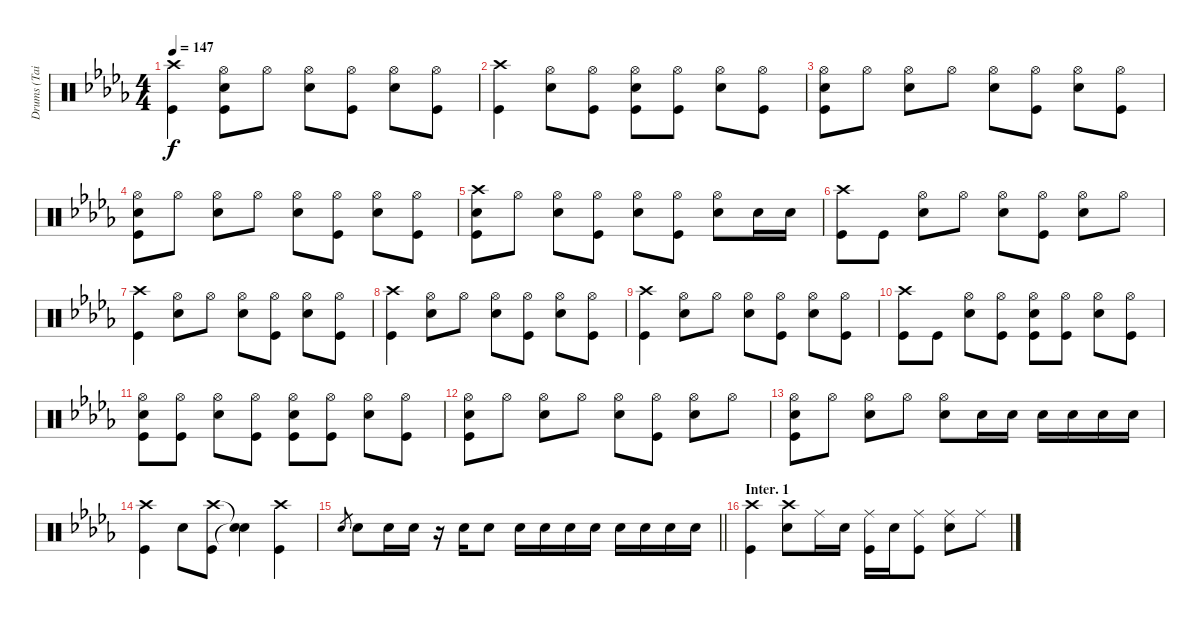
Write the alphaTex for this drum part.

\track ("Drums (Tainaka Ritsu)" "Drums (Tai") {instrument percussion}
\staff {score}
\articulation defaults
\ts (4 4)
\tempo 147
\clef neutral
\ks db
("Crash high (hit)" "Kick (hit)").4{dy f} ("Hi-Hat (open)" "Snare (hit) 2" "Kick (hit)").8 "Hi-Hat (open)".8 ("Hi-Hat (open)" "Snare (hit) 2").8 ("Hi-Hat (open)" "Kick (hit)").8 ("Hi-Hat (open)" "Snare (hit) 2").8 ("Hi-Hat (open)" "Kick (hit)").8 |
("Crash high (hit)" "Kick (hit)").4 ("Hi-Hat (open)" "Snare (hit) 2").8 ("Hi-Hat (open)" "Kick (hit)").8 ("Hi-Hat (open)" "Snare (hit) 2" "Kick (hit)").8 ("Hi-Hat (open)" "Kick (hit)").8 ("Hi-Hat (open)" "Snare (hit) 2").8 ("Hi-Hat (open)" "Kick (hit)").8 |
("Hi-Hat (open)" "Snare (hit) 2" "Kick (hit)").8 "Hi-Hat (open)".8 ("Hi-Hat (open)" "Snare (hit) 2").8 "Hi-Hat (open)".8 ("Hi-Hat (open)" "Snare (hit) 2").8 ("Hi-Hat (open)" "Kick (hit)").8 ("Hi-Hat (open)" "Snare (hit) 2").8 ("Hi-Hat (open)" "Kick (hit)").8 |
("Hi-Hat (open)" "Snare (hit) 2" "Kick (hit)").8 "Hi-Hat (open)".8 ("Hi-Hat (open)" "Snare (hit) 2").8 "Hi-Hat (open)".8 ("Hi-Hat (open)" "Snare (hit) 2").8 ("Hi-Hat (open)" "Kick (hit)").8 ("Hi-Hat (open)" "Snare (hit) 2").8 ("Hi-Hat (open)" "Kick (hit)").8 |
("Crash high (hit)" "Snare (hit) 2" "Kick (hit)").8 "Hi-Hat (open)".8 ("Hi-Hat (open)" "Snare (hit) 2").8 ("Hi-Hat (open)" "Kick (hit)").8 ("Hi-Hat (open)" "Snare (hit) 2").8 ("Hi-Hat (open)" "Kick (hit)").8 ("Hi-Hat (open)" "Snare (hit) 2").8 "Snare (hit) 2".16 "Snare (hit) 2".16 |
("Crash high (hit)" "Kick (hit)").8 "Kick (hit)".8 ("Hi-Hat (open)" "Snare (hit) 2").8 "Hi-Hat (open)".8 ("Hi-Hat (open)" "Snare (hit) 2").8 ("Hi-Hat (open)" "Kick (hit)").8 ("Hi-Hat (open)" "Snare (hit) 2").8 "Hi-Hat (open)".8 |
("Crash high (hit)" "Kick (hit)").4 ("Hi-Hat (open)" "Snare (hit) 2").8 "Hi-Hat (open)".8 ("Hi-Hat (open)" "Snare (hit) 2").8 ("Hi-Hat (open)" "Kick (hit)").8 ("Hi-Hat (open)" "Snare (hit) 2").8 ("Hi-Hat (open)" "Kick (hit)").8 |
("Crash high (hit)" "Kick (hit)").4 ("Hi-Hat (open)" "Snare (hit) 2").8 "Hi-Hat (open)".8 ("Hi-Hat (open)" "Snare (hit) 2").8 ("Hi-Hat (open)" "Kick (hit)").8 ("Hi-Hat (open)" "Snare (hit) 2").8 ("Hi-Hat (open)" "Kick (hit)").8 |
("Crash high (hit)" "Kick (hit)").4 ("Hi-Hat (open)" "Snare (hit) 2").8 "Hi-Hat (open)".8 ("Hi-Hat (open)" "Snare (hit) 2").8 ("Hi-Hat (open)" "Kick (hit)").8 ("Hi-Hat (open)" "Snare (hit) 2").8 ("Hi-Hat (open)" "Kick (hit)").8 |
("Crash high (hit)" "Kick (hit)").8 "Kick (hit)".8 ("Hi-Hat (open)" "Snare (hit) 2").8 ("Hi-Hat (open)" "Kick (hit)").8 ("Hi-Hat (open)" "Snare (hit) 2" "Kick (hit)").8 ("Hi-Hat (open)" "Kick (hit)").8 ("Hi-Hat (open)" "Snare (hit) 2").8 ("Hi-Hat (open)" "Kick (hit)").8 |
("Hi-Hat (open)" "Snare (hit) 2" "Kick (hit)").8 ("Hi-Hat (open)" "Kick (hit)").8 ("Hi-Hat (open)" "Snare (hit) 2").8 ("Hi-Hat (open)" "Kick (hit)").8 ("Hi-Hat (open)" "Snare (hit) 2" "Kick (hit)").8 ("Hi-Hat (open)" "Kick (hit)").8 ("Hi-Hat (open)" "Snare (hit) 2").8 ("Hi-Hat (open)" "Kick (hit)").8 |
("Hi-Hat (open)" "Snare (hit) 2" "Kick (hit)").8 "Hi-Hat (open)".8 ("Hi-Hat (open)" "Snare (hit) 2").8 "Hi-Hat (open)".8 ("Hi-Hat (open)" "Snare (hit) 2").8 ("Hi-Hat (open)" "Kick (hit)").8 ("Hi-Hat (open)" "Snare (hit) 2").8 "Hi-Hat (open)".8 |
("Hi-Hat (open)" "Snare (hit) 2" "Kick (hit)").8 "Hi-Hat (open)".8 ("Hi-Hat (open)" "Snare (hit) 2").8 "Hi-Hat (open)".8 ("Hi-Hat (open)" "Snare (hit) 2").8 "Snare (hit) 2".16 "Snare (hit) 2".16 "Snare (hit) 2".16 "Snare (hit) 2".16 "Snare (hit) 2".16 "Snare (hit) 2".16 |
("Crash high (hit)" "Kick (hit)").4 "Snare (hit) 2".8 ("Crash high (hit)" "Kick (hit)").8 ("Snare (hit)"{t} "Snare (hit)"{t}).4 ("Crash high (hit)" "Kick (hit)").4 |
\barLineRight lightlight "Snare (hit) 2".8{gr} "Snare (hit) 2".8 "Snare (hit) 2".16 "Snare (hit) 2".16
r.16 "Snare (hit) 2".16 "Snare (hit) 2".8 "Snare (hit) 2".16 "Snare (hit) 2".16 "Snare (hit) 2".16 "Snare (hit) 2".16 "Snare (hit) 2".16 "Snare (hit) 2".16 "Snare (hit) 2".16 "Snare (hit) 2".16 |
\section ("" "Inter. 1")
("Crash high (hit)" "Kick (hit)").4 ("Crash high (hit)" "Snare (hit) 2").8 "Ride (middle)".16 "Snare (hit) 2".16 ("Ride (middle)" "Kick (hit)").16 "Snare (hit) 2".16 ("Ride (middle)" "Kick (hit)").8 ("Ride (middle)" "Snare (hit) 2").8 "Ride (middle)".8
